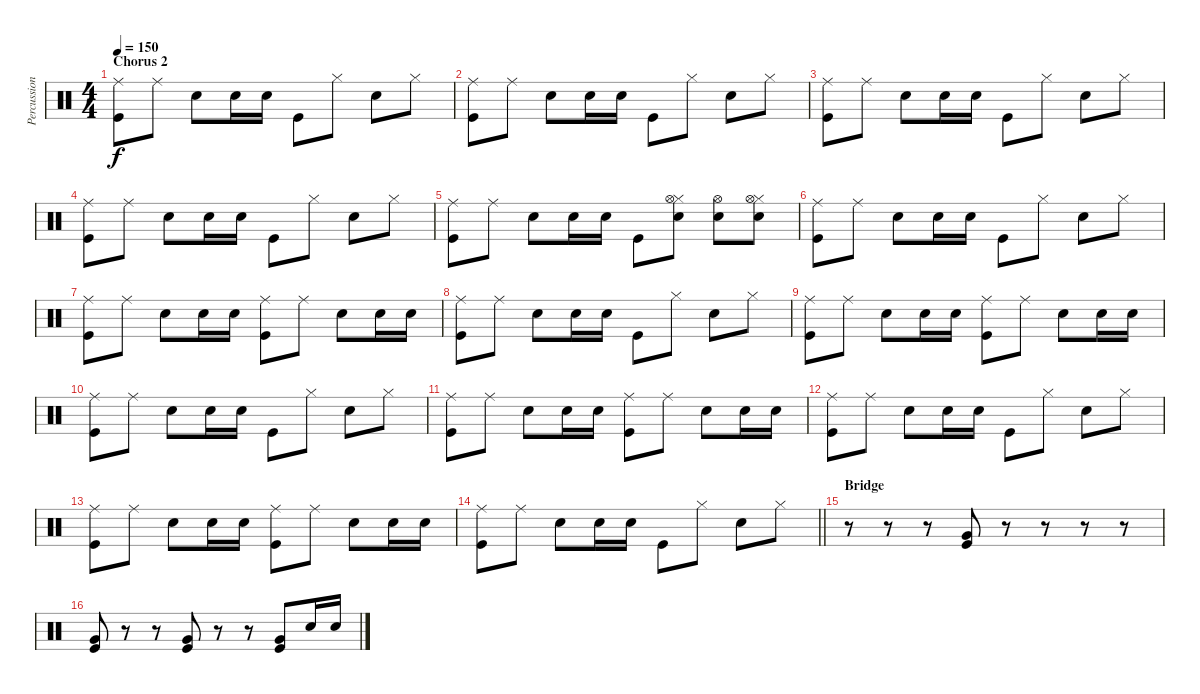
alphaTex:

\track ("Percussion" "Percussion") {instrument percussion}
\staff {score}
\articulation defaults
\ts (4 4)
\section ("" "Chorus 2")
\tempo 150
\clef neutral
\ks c
("Ride (middle)" "Kick (hit)").8{dy f} "Ride (middle)".8 "Snare (hit) 2".8 "Snare (hit) 2".16 "Snare (hit) 2".16 "Kick (hit)".8 "Hi-Hat (closed)".8 "Snare (hit) 2".8 "Hi-Hat (closed)".8 |
("Ride (middle)" "Kick (hit)").8 "Ride (middle)".8 "Snare (hit) 2".8 "Snare (hit) 2".16 "Snare (hit) 2".16 "Kick (hit)".8 "Hi-Hat (closed)".8 "Snare (hit) 2".8 "Hi-Hat (closed)".8 |
("Ride (middle)" "Kick (hit)").8 "Ride (middle)".8 "Snare (hit) 2".8 "Snare (hit) 2".16 "Snare (hit) 2".16 "Kick (hit)".8 "Hi-Hat (closed)".8 "Snare (hit) 2".8 "Hi-Hat (closed)".8 |
("Ride (middle)" "Kick (hit)").8 "Ride (middle)".8 "Snare (hit) 2".8 "Snare (hit) 2".16 "Snare (hit) 2".16 "Kick (hit)".8 "Hi-Hat (closed)".8 "Snare (hit) 2".8 "Hi-Hat (closed)".8 |
("Ride (middle)" "Kick (hit)").8 "Ride (middle)".8 "Snare (hit) 2".8 "Snare (hit) 2".16 "Snare (hit) 2".16 "Kick (hit)".8 ("Hi-Hat (closed)" "Snare (hit) 2" "Hi-Hat (open)").8 ("Snare (hit) 2" "Hi-Hat (open)").8 ("Hi-Hat (closed)" "Snare (hit) 2" "Hi-Hat (open)").8 |
("Ride (middle)" "Kick (hit)").8 "Ride (middle)".8 "Snare (hit) 2".8 "Snare (hit) 2".16 "Snare (hit) 2".16 "Kick (hit)".8 "Hi-Hat (closed)".8 "Snare (hit) 2".8 "Hi-Hat (closed)".8 |
("Ride (middle)" "Kick (hit)").8 "Ride (middle)".8 "Snare (hit) 2".8 "Snare (hit) 2".16 "Snare (hit) 2".16 ("Ride (middle)" "Kick (hit)").8 "Ride (middle)".8 "Snare (hit) 2".8 "Snare (hit) 2".16 "Snare (hit) 2".16 |
("Ride (middle)" "Kick (hit)").8 "Ride (middle)".8 "Snare (hit) 2".8 "Snare (hit) 2".16 "Snare (hit) 2".16 "Kick (hit)".8 "Hi-Hat (closed)".8 "Snare (hit) 2".8 "Hi-Hat (closed)".8 |
("Ride (middle)" "Kick (hit)").8 "Ride (middle)".8 "Snare (hit) 2".8 "Snare (hit) 2".16 "Snare (hit) 2".16 ("Ride (middle)" "Kick (hit)").8 "Ride (middle)".8 "Snare (hit) 2".8 "Snare (hit) 2".16 "Snare (hit) 2".16 |
("Ride (middle)" "Kick (hit)").8 "Ride (middle)".8 "Snare (hit) 2".8 "Snare (hit) 2".16 "Snare (hit) 2".16 "Kick (hit)".8 "Hi-Hat (closed)".8 "Snare (hit) 2".8 "Hi-Hat (closed)".8 |
("Ride (middle)" "Kick (hit)").8 "Ride (middle)".8 "Snare (hit) 2".8 "Snare (hit) 2".16 "Snare (hit) 2".16 ("Ride (middle)" "Kick (hit)").8 "Ride (middle)".8 "Snare (hit) 2".8 "Snare (hit) 2".16 "Snare (hit) 2".16 |
("Ride (middle)" "Kick (hit)").8 "Ride (middle)".8 "Snare (hit) 2".8 "Snare (hit) 2".16 "Snare (hit) 2".16 "Kick (hit)".8 "Hi-Hat (closed)".8 "Snare (hit) 2".8 "Hi-Hat (closed)".8 |
("Ride (middle)" "Kick (hit)").8 "Ride (middle)".8 "Snare (hit) 2".8 "Snare (hit) 2".16 "Snare (hit) 2".16 ("Ride (middle)" "Kick (hit)").8 "Ride (middle)".8 "Snare (hit) 2".8 "Snare (hit) 2".16 "Snare (hit) 2".16 |
\barLineRight lightlight
("Ride (middle)" "Kick (hit)").8 "Ride (middle)".8 "Snare (hit) 2".8 "Snare (hit) 2".16 "Snare (hit) 2".16 "Kick (hit)".8 "Hi-Hat (closed)".8 "Snare (hit) 2".8 "Hi-Hat (closed)".8 |
\section ("" "Bridge")
r.8 r.8 r.8 ("Very Low Tom (hit)" "Kick (hit)").8 r.8 r.8 r.8 r.8 |
("Very Low Tom (hit)" "Kick (hit)").8 r.8 r.8 ("Very Low Tom (hit)" "Kick (hit)").8 r.8 r.8 ("Very Low Tom (hit)" "Kick (hit)").8 "Snare (hit) 2".16 "Snare (hit) 2".16
